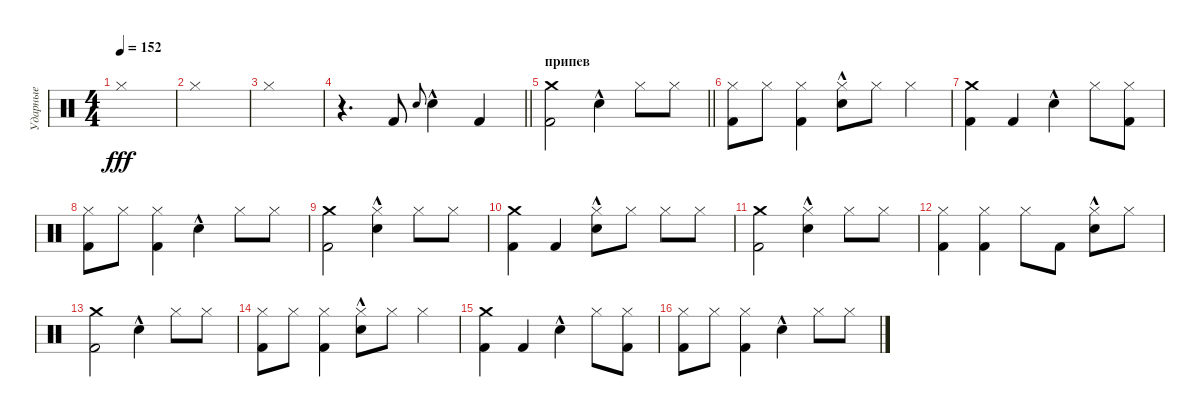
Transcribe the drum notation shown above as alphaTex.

\track ("Ударные" "Ударные") {instrument percussion}
\staff {score}
\articulation defaults
\ts (4 4)
\tempo 152
\clef neutral
\ks c "Hi-Hat (closed)".1{dy fff}
|
"Hi-Hat (closed)".1 |
"Hi-Hat (closed)".1 |
\barLineRight lightlight
r.4{d} "Kick (hit) 2".8 "Electric Snare (hit)".8{gr onbeat} "Electric Snare (hit)"{hac}.4 "Kick (hit) 2".4 |
\section ("" "припев")
\barLineRight lightlight
("Crash medium (hit)" "Kick (hit) 2").2 "Electric Snare (hit)"{hac}.4 "Hi-Hat (closed)".8 "Hi-Hat (closed)".8 |
("Hi-Hat (closed)" "Kick (hit) 2").8 "Hi-Hat (closed)".8 ("Hi-Hat (closed)" "Kick (hit) 2").4 ("Hi-Hat (closed)" "Electric Snare (hit)"{hac}).8 "Hi-Hat (closed)".8 "Hi-Hat (closed)".4 |
("Crash medium (hit)" "Kick (hit) 2").4 "Kick (hit) 2".4 "Electric Snare (hit)"{hac}.4 "Hi-Hat (closed)".8 ("Hi-Hat (closed)" "Kick (hit) 2").8 |
("Hi-Hat (closed)" "Kick (hit) 2").8 "Hi-Hat (closed)".8 ("Hi-Hat (closed)" "Kick (hit) 2").4 "Electric Snare (hit)"{hac}.4 "Hi-Hat (closed)".8 "Hi-Hat (closed)".8 |
("Crash medium (hit)" "Kick (hit) 2").2 ("Hi-Hat (closed)" "Electric Snare (hit)"{hac}).4 "Hi-Hat (closed)".8 "Hi-Hat (closed)".8 |
("Crash medium (hit)" "Kick (hit) 2").4 "Kick (hit) 2".4 ("Hi-Hat (closed)" "Electric Snare (hit)"{hac}).8 "Hi-Hat (closed)".8 "Hi-Hat (closed)".8 "Hi-Hat (closed)".8 |
("Crash medium (hit)" "Kick (hit) 2").2 ("Hi-Hat (closed)" "Electric Snare (hit)"{hac}).4 "Hi-Hat (closed)".8 "Hi-Hat (closed)".8 |
("Hi-Hat (closed)" "Kick (hit) 2").4 ("Hi-Hat (closed)" "Kick (hit) 2").4 "Hi-Hat (closed)".8 "Kick (hit) 2".8 ("Hi-Hat (closed)" "Electric Snare (hit)"{hac}).8 "Hi-Hat (closed)".8 |
("Crash medium (hit)" "Kick (hit) 2").2 "Electric Snare (hit)"{hac}.4 "Hi-Hat (closed)".8 "Hi-Hat (closed)".8 |
("Hi-Hat (closed)" "Kick (hit) 2").8 "Hi-Hat (closed)".8 ("Hi-Hat (closed)" "Kick (hit) 2").4 ("Hi-Hat (closed)" "Electric Snare (hit)"{hac}).8 "Hi-Hat (closed)".8 "Hi-Hat (closed)".4 |
("Crash medium (hit)" "Kick (hit) 2").4 "Kick (hit) 2".4 "Electric Snare (hit)"{hac}.4 "Hi-Hat (closed)".8 ("Hi-Hat (closed)" "Kick (hit) 2").8 |
("Hi-Hat (closed)" "Kick (hit) 2").8 "Hi-Hat (closed)".8 ("Hi-Hat (closed)" "Kick (hit) 2").4 "Electric Snare (hit)"{hac}.4 "Hi-Hat (closed)".8 "Hi-Hat (closed)".8
